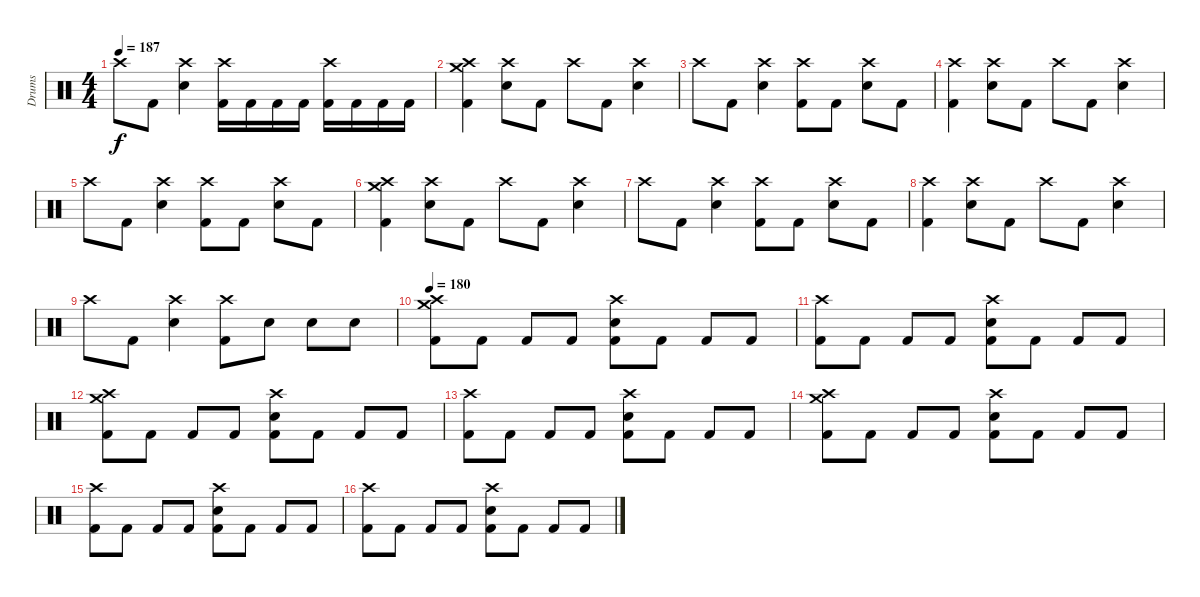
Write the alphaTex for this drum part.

\track ("Drums" "Drums") {instrument percussion}
\staff {score}
\articulation defaults
\ts (4 4)
\tempo 187
\clef neutral
\ks c "Crash high (hit)".8{dy f} "Kick (hit) 2".8
("Crash high (hit)" "Snare (hit) 2").4 ("Crash high (hit)" "Kick (hit) 2").16 "Kick (hit) 2".16 "Kick (hit) 2".16 "Kick (hit) 2".16 ("Crash high (hit)" "Kick (hit) 2").16 "Kick (hit) 2".16 "Kick (hit) 2".16 "Kick (hit) 2".16 |
("Crash high (hit)" "Crash medium (hit)" "Kick (hit) 2").4 ("Snare (hit) 2" "Crash high (hit)").8 "Kick (hit) 2".8 "Crash high (hit)".8 "Kick (hit) 2".8 ("Crash high (hit)" "Snare (hit) 2").4 |
"Crash high (hit)".8 "Kick (hit) 2".8 ("Crash high (hit)" "Snare (hit) 2").4 ("Crash high (hit)" "Kick (hit) 2").8 "Kick (hit) 2".8 ("Crash high (hit)" "Snare (hit) 2").8 "Kick (hit) 2".8 |
("Crash high (hit)" "Kick (hit) 2").4 ("Snare (hit) 2" "Crash high (hit)").8 "Kick (hit) 2".8 "Crash high (hit)".8 "Kick (hit) 2".8 ("Crash high (hit)" "Snare (hit) 2").4 |
"Crash high (hit)".8 "Kick (hit) 2".8 ("Crash high (hit)" "Snare (hit) 2").4 ("Crash high (hit)" "Kick (hit) 2").8 "Kick (hit) 2".8 ("Crash high (hit)" "Snare (hit) 2").8 "Kick (hit) 2".8 |
("Crash high (hit)" "Crash medium (hit)" "Kick (hit) 2").4 ("Snare (hit) 2" "Crash high (hit)").8 "Kick (hit) 2".8 "Crash high (hit)".8 "Kick (hit) 2".8 ("Crash high (hit)" "Snare (hit) 2").4 |
"Crash high (hit)".8 "Kick (hit) 2".8 ("Crash high (hit)" "Snare (hit) 2").4 ("Crash high (hit)" "Kick (hit) 2").8 "Kick (hit) 2".8 ("Crash high (hit)" "Snare (hit) 2").8 "Kick (hit) 2".8 |
("Crash high (hit)" "Kick (hit) 2").4 ("Snare (hit) 2" "Crash high (hit)").8 "Kick (hit) 2".8 "Crash high (hit)".8 "Kick (hit) 2".8 ("Crash high (hit)" "Snare (hit) 2").4 |
"Crash high (hit)".8 "Kick (hit) 2".8 ("Crash high (hit)" "Snare (hit) 2").4 ("Crash high (hit)" "Kick (hit) 2").8 "Snare (hit) 2".8 "Snare (hit) 2".8 "Snare (hit) 2".8 |
\tempo 180
("Kick (hit) 2" "Crash high (hit)" "Crash medium (hit)").8 "Kick (hit) 2".8 "Kick (hit) 2".8 "Kick (hit) 2".8 ("Kick (hit) 2" "Crash high (hit)" "Snare (hit) 2").8 "Kick (hit) 2".8 "Kick (hit) 2".8 "Kick (hit) 2".8 |
("Crash high (hit)" "Kick (hit) 2").8 "Kick (hit) 2".8 "Kick (hit) 2".8 "Kick (hit) 2".8 ("Kick (hit) 2" "Snare (hit) 2" "Crash high (hit)").8 "Kick (hit) 2".8 "Kick (hit) 2".8 "Kick (hit) 2".8 |
("Kick (hit) 2" "Crash high (hit)" "Crash medium (hit)").8 "Kick (hit) 2".8 "Kick (hit) 2".8 "Kick (hit) 2".8 ("Kick (hit) 2" "Crash high (hit)" "Snare (hit) 2").8 "Kick (hit) 2".8 "Kick (hit) 2".8 "Kick (hit) 2".8 |
("Crash high (hit)" "Kick (hit) 2").8 "Kick (hit) 2".8 "Kick (hit) 2".8 "Kick (hit) 2".8 ("Kick (hit) 2" "Snare (hit) 2" "Crash high (hit)").8 "Kick (hit) 2".8 "Kick (hit) 2".8 "Kick (hit) 2".8 |
("Kick (hit) 2" "Crash high (hit)" "Crash medium (hit)").8 "Kick (hit) 2".8 "Kick (hit) 2".8 "Kick (hit) 2".8 ("Kick (hit) 2" "Crash high (hit)" "Snare (hit) 2").8 "Kick (hit) 2".8 "Kick (hit) 2".8 "Kick (hit) 2".8 |
("Crash high (hit)" "Kick (hit) 2").8 "Kick (hit) 2".8 "Kick (hit) 2".8 "Kick (hit) 2".8 ("Kick (hit) 2" "Snare (hit) 2" "Crash high (hit)").8 "Kick (hit) 2".8 "Kick (hit) 2".8 "Kick (hit) 2".8 |
("Kick (hit) 2" "Crash high (hit)").8 "Kick (hit) 2".8 "Kick (hit) 2".8 "Kick (hit) 2".8 ("Kick (hit) 2" "Crash high (hit)" "Snare (hit) 2").8 "Kick (hit) 2".8 "Kick (hit) 2".8 "Kick (hit) 2".8
